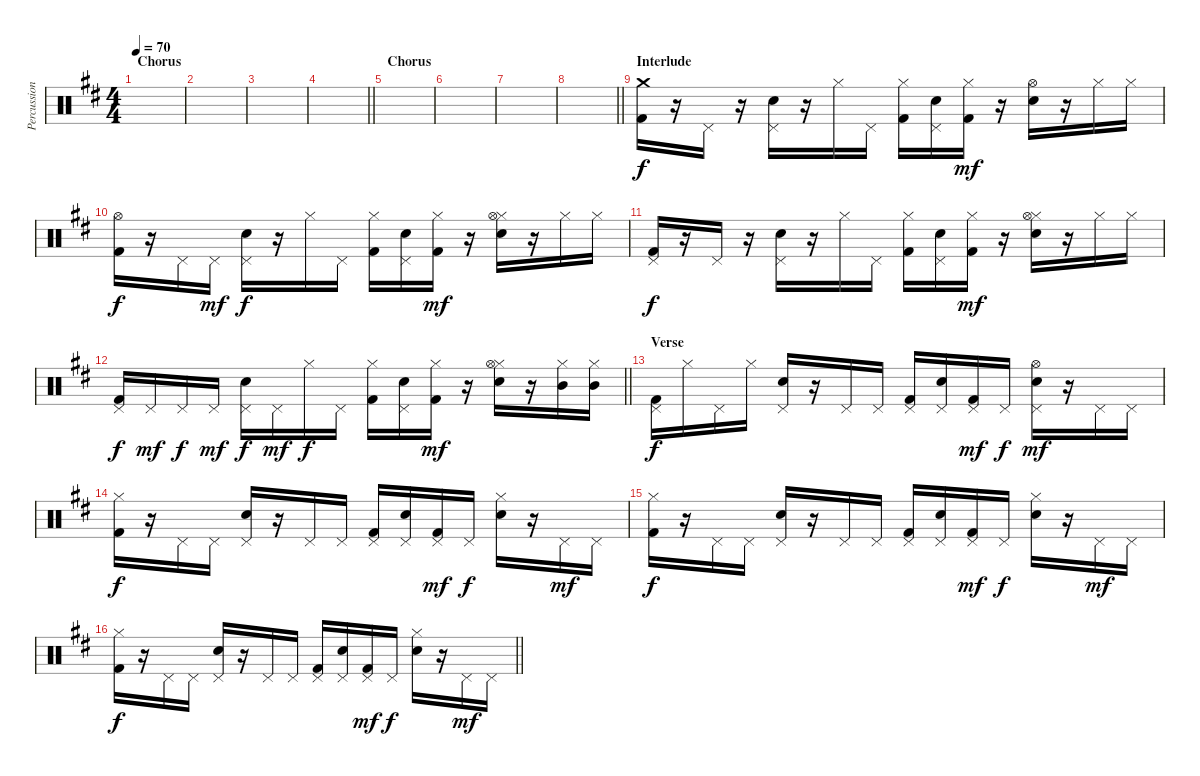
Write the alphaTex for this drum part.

\track ("Percussion" "Percussion") {instrument percussion}
\staff {score}
\articulation defaults
\ts (4 4)
\section ("" "Chorus")
\tempo 70
\clef neutral
\ks d
|
|
|
\barLineRight lightlight
|
\section ("" "Chorus")
|
|
|
\barLineRight lightlight
|
\section ("" "Interlude")
("Crash medium (hit)" "Kick (hit) 2").16 r.16 "Pedal Hi-Hat (hit)".16 r.16 ("Pedal Hi-Hat (hit)" "Snare (hit) 2").16 r.16 "Hi-Hat (closed)".16 "Pedal Hi-Hat (hit)".16 ("Hi-Hat (closed)" "Kick (hit) 2").16 ("Pedal Hi-Hat (hit)" "Snare (hit) 2").16 ("Hi-Hat (closed)" "Kick (hit) 2").16{dy mf} r.16 ("Hi-Hat (open)" "Snare (hit) 2").16 r.16 "Hi-Hat (closed)".16 "Hi-Hat (closed)".16 |
("Hi-Hat (open)" "Kick (hit) 2").16{dy f} r.16 "Pedal Hi-Hat (hit)".16 "Pedal Hi-Hat (hit)".16{dy mf} ("Pedal Hi-Hat (hit)" "Snare (hit) 2").16{dy f} r.16 "Hi-Hat (closed)".16 "Pedal Hi-Hat (hit)".16 ("Hi-Hat (closed)" "Kick (hit) 2").16 ("Pedal Hi-Hat (hit)" "Snare (hit) 2").16 ("Hi-Hat (closed)" "Kick (hit) 2").16{dy mf} r.16 ("Hi-Hat (closed)" "Hi-Hat (open)" "Snare (hit) 2").16 r.16 "Hi-Hat (closed)".16 "Hi-Hat (closed)".16 |
("Pedal Hi-Hat (hit)" "Kick (hit) 2").16{dy f} r.16 "Pedal Hi-Hat (hit)".16 r.16 ("Pedal Hi-Hat (hit)" "Snare (hit) 2").16 r.16 "Hi-Hat (closed)".16 "Pedal Hi-Hat (hit)".16 ("Hi-Hat (closed)" "Kick (hit) 2").16 ("Pedal Hi-Hat (hit)" "Snare (hit) 2").16 ("Hi-Hat (closed)" "Kick (hit) 2").16{dy mf} r.16 ("Hi-Hat (closed)" "Hi-Hat (open)" "Snare (hit) 2").16 r.16 "Hi-Hat (closed)".16 "Hi-Hat (closed)".16 |
\barLineRight lightlight
("Pedal Hi-Hat (hit)" "Kick (hit) 2").16{dy f} "Pedal Hi-Hat (hit)".16{dy mf} "Pedal Hi-Hat (hit)".16{dy f} "Pedal Hi-Hat (hit)".16{dy mf} ("Pedal Hi-Hat (hit)" "Snare (hit) 2").16{dy f} "Pedal Hi-Hat (hit)".16{dy mf} "Hi-Hat (closed)".16{dy f} "Pedal Hi-Hat (hit)".16 ("Hi-Hat (closed)" "Kick (hit) 2").16 ("Pedal Hi-Hat (hit)" "Snare (hit) 2").16 ("Hi-Hat (closed)" "Kick (hit) 2").16{dy mf} r.16 ("Hi-Hat (closed)" "Hi-Hat (open)" "Snare (hit) 2").16 r.16 ("Hi-Hat (closed)" "Mid Tom (hit)").16 ("Hi-Hat (closed)" "Mid Tom (hit)").16 |
\section ("" "Verse")
("Pedal Hi-Hat (hit)" "Kick (hit) 2").16{dy f} "Hi-Hat (closed)".16 "Pedal Hi-Hat (hit)".16 "Hi-Hat (closed)".16 ("Pedal Hi-Hat (hit)" "Snare (hit) 2").16 r.16 "Pedal Hi-Hat (hit)".16 "Pedal Hi-Hat (hit)".16 ("Pedal Hi-Hat (hit)" "Kick (hit) 2").16 ("Pedal Hi-Hat (hit)" "Snare (hit) 2").16 ("Pedal Hi-Hat (hit)" "Kick (hit) 2").16{dy mf} "Pedal Hi-Hat (hit)".16{dy f} ("Pedal Hi-Hat (hit)" "Hi-Hat (open)" "Snare (hit) 2").16{dy mf} r.16 "Pedal Hi-Hat (hit)".16 "Pedal Hi-Hat (hit)".16 |
("Hi-Hat (closed)" "Kick (hit) 2").16{dy f} r.16 "Pedal Hi-Hat (hit)".16 "Pedal Hi-Hat (hit)".16 ("Pedal Hi-Hat (hit)" "Snare (hit) 2").16 r.16 "Pedal Hi-Hat (hit)".16 "Pedal Hi-Hat (hit)".16 ("Pedal Hi-Hat (hit)" "Kick (hit) 2").16 ("Pedal Hi-Hat (hit)" "Snare (hit) 2").16 ("Pedal Hi-Hat (hit)" "Kick (hit) 2").16{dy mf} "Pedal Hi-Hat (hit)".16{dy f} ("Hi-Hat (closed)" "Snare (hit) 2").16 r.16 "Pedal Hi-Hat (hit)".16{dy mf} "Pedal Hi-Hat (hit)".16 |
("Hi-Hat (closed)" "Kick (hit) 2").16{dy f} r.16 "Pedal Hi-Hat (hit)".16 "Pedal Hi-Hat (hit)".16 ("Pedal Hi-Hat (hit)" "Snare (hit) 2").16 r.16 "Pedal Hi-Hat (hit)".16 "Pedal Hi-Hat (hit)".16 ("Pedal Hi-Hat (hit)" "Kick (hit) 2").16 ("Pedal Hi-Hat (hit)" "Snare (hit) 2").16 ("Pedal Hi-Hat (hit)" "Kick (hit) 2").16{dy mf} "Pedal Hi-Hat (hit)".16{dy f} ("Hi-Hat (closed)" "Snare (hit) 2").16 r.16 "Pedal Hi-Hat (hit)".16{dy mf} "Pedal Hi-Hat (hit)".16 |
\barLineRight lightlight
("Hi-Hat (closed)" "Kick (hit) 2").16{dy f} r.16 "Pedal Hi-Hat (hit)".16 "Pedal Hi-Hat (hit)".16 ("Pedal Hi-Hat (hit)" "Snare (hit) 2").16 r.16 "Pedal Hi-Hat (hit)".16 "Pedal Hi-Hat (hit)".16 ("Pedal Hi-Hat (hit)" "Kick (hit) 2").16 ("Pedal Hi-Hat (hit)" "Snare (hit) 2").16 ("Pedal Hi-Hat (hit)" "Kick (hit) 2").16{dy mf} "Pedal Hi-Hat (hit)".16{dy f} ("Hi-Hat (closed)" "Snare (hit) 2").16 r.16 "Pedal Hi-Hat (hit)".16{dy mf} "Pedal Hi-Hat (hit)".16
